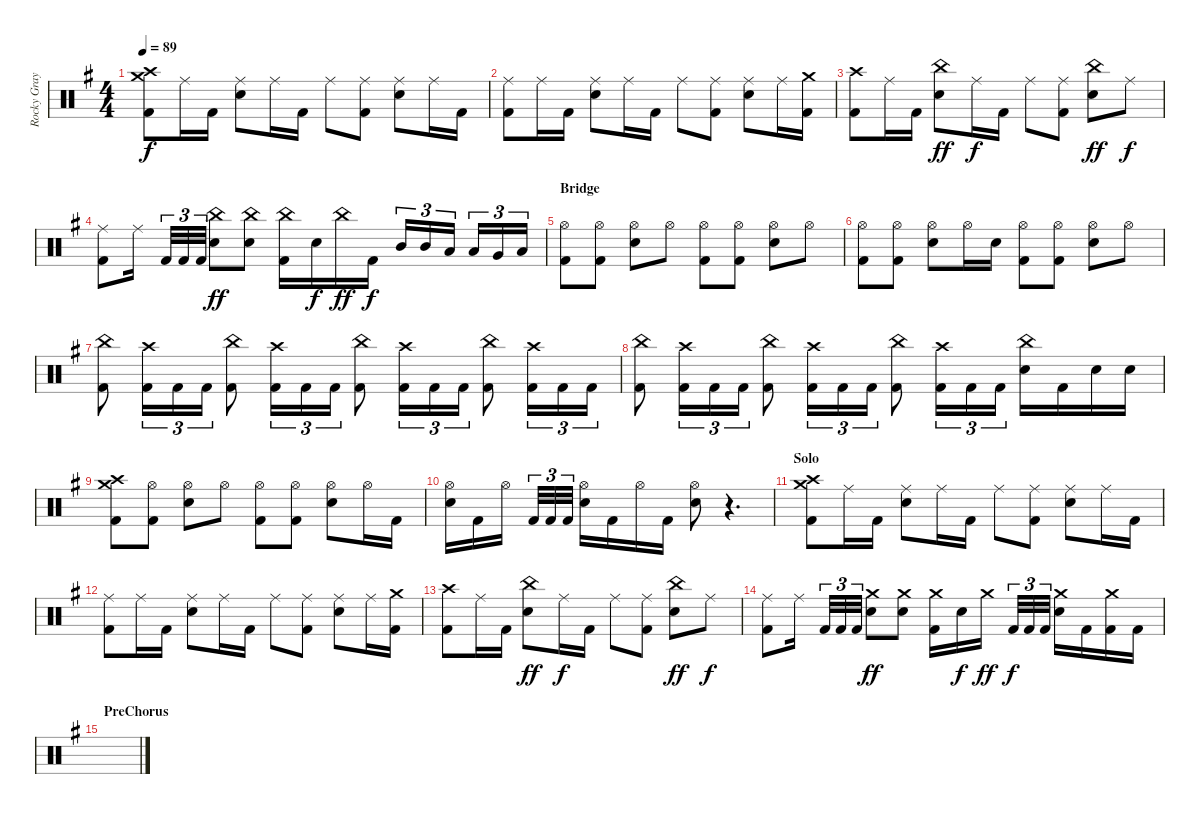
\track ("Rocky Gray" "Rocky Gray") {instrument percussion}
\staff {score}
\articulation defaults
\ts (4 4)
\tempo 89
\clef neutral
\ks g
("Crash high (hit)" "Crash medium (hit)" "Kick (hit) 2").8{dy f} "Ride (middle)".16 "Kick (hit) 2".16 ("Ride (middle)" "Snare (hit) 2").8 "Ride (middle)".16 "Kick (hit) 2".16 "Ride (middle)".8 ("Ride (middle)" "Kick (hit) 2").8 ("Ride (middle)" "Snare (hit) 2").8 "Ride (middle)".16 "Kick (hit) 2".16 |
("Ride (middle)" "Kick (hit) 2").8 "Ride (middle)".16 "Kick (hit) 2".16 ("Ride (middle)" "Snare (hit) 2").8 "Ride (middle)".16 "Kick (hit) 2".16 "Ride (middle)".8 ("Ride (middle)" "Kick (hit) 2").8 ("Ride (middle)" "Snare (hit) 2").8 "Ride (middle)".16 ("Crash medium (hit)" "Kick (hit) 2").16 |
("Crash high (hit)" "Kick (hit) 2").8 "Ride (middle)".16 "Kick (hit) 2".16 ("China (hit)" "Snare (hit) 2").8{dy ff} "Ride (middle)".16{dy f} "Kick (hit) 2".16 "Ride (middle)".8 ("Ride (middle)" "Kick (hit) 2").8 ("China (hit)" "Snare (hit) 2").8{dy ff} "Ride (middle)".8{dy f} |
("Ride (middle)" "Kick (hit) 2").8 "Ride (middle)".16 "Kick (hit) 2".32{tu (3 2)} "Kick (hit) 2".32{tu (3 2)} "Kick (hit) 2".32{tu (3 2)} ("China (hit)" "Snare (hit) 2").8{dy ff} ("China (hit)" "Snare (hit) 2").8 ("China (hit)" "Kick (hit) 2").16 "Snare (hit) 2".16{dy f} "China (hit)".16{dy ff} "Kick (hit) 2".16{dy f} "Mid Tom (hit)".16{tu (3 2)} "Mid Tom (hit)".16{tu (3 2)} "Low Tom (hit)".16{tu (3 2)} "Low Tom (hit)".16{tu (3 2)} "Very Low Tom (hit)".16{tu (3 2)} "Low Floor Tom (hit)".16{tu (3 2)} |
\section ("" "Bridge")
("Hi-Hat (open)" "Kick (hit) 2").8 ("Hi-Hat (open)" "Kick (hit) 2").8 ("Hi-Hat (open)" "Snare (hit) 2").8 "Hi-Hat (open)".8 ("Hi-Hat (open)" "Kick (hit) 2").8 ("Hi-Hat (open)" "Kick (hit) 2").8 ("Hi-Hat (open)" "Snare (hit) 2").8 "Hi-Hat (open)".8 |
("Hi-Hat (open)" "Kick (hit) 2").8 ("Hi-Hat (open)" "Kick (hit) 2").8 ("Hi-Hat (open)" "Snare (hit) 2").8 "Hi-Hat (open)".16 "Snare (hit) 2".16 ("Hi-Hat (open)" "Kick (hit) 2").8 ("Hi-Hat (open)" "Kick (hit) 2").8 ("Hi-Hat (open)" "Snare (hit) 2").8 "Hi-Hat (open)".8 |
("China (hit)" "Kick (hit) 2").8 ("Crash high (hit)" "Kick (hit) 2").16{tu (3 2)} "Kick (hit) 2".16{tu (3 2)} "Kick (hit) 2".16{tu (3 2)} ("China (hit)" "Kick (hit) 2").8 ("Crash high (hit)" "Kick (hit) 2").16{tu (3 2)} "Kick (hit) 2".16{tu (3 2)} "Kick (hit) 2".16{tu (3 2)} ("China (hit)" "Kick (hit) 2").8 ("Crash high (hit)" "Kick (hit) 2").16{tu (3 2)} "Kick (hit) 2".16{tu (3 2)} "Kick (hit) 2".16{tu (3 2)} ("China (hit)" "Kick (hit) 2").8 ("Crash high (hit)" "Kick (hit) 2").16{tu (3 2)} "Kick (hit) 2".16{tu (3 2)} "Kick (hit) 2".16{tu (3 2)} |
("China (hit)" "Kick (hit) 2").8 ("Crash high (hit)" "Kick (hit) 2").16{tu (3 2)} "Kick (hit) 2".16{tu (3 2)} "Kick (hit) 2".16{tu (3 2)} ("China (hit)" "Kick (hit) 2").8 ("Crash high (hit)" "Kick (hit) 2").16{tu (3 2)} "Kick (hit) 2".16{tu (3 2)} "Kick (hit) 2".16{tu (3 2)} ("China (hit)" "Kick (hit) 2").8 ("Crash high (hit)" "Kick (hit) 2").16{tu (3 2)} "Kick (hit) 2".16{tu (3 2)} "Kick (hit) 2".16{tu (3 2)} ("China (hit)" "Snare (hit) 2").16 "Kick (hit) 2".16 "Snare (hit) 2".16 "Snare (hit) 2".16 |
("Crash high (hit)" "Crash medium (hit)" "Kick (hit) 2").8 ("Hi-Hat (open)" "Kick (hit) 2").8 ("Hi-Hat (open)" "Snare (hit) 2").8 "Hi-Hat (open)".8 ("Hi-Hat (open)" "Kick (hit) 2").8 ("Hi-Hat (open)" "Kick (hit) 2").8 ("Hi-Hat (open)" "Snare (hit) 2").8 "Hi-Hat (open)".16 "Kick (hit) 2".16 |
("Hi-Hat (open)" "Snare (hit) 2").16 "Kick (hit) 2".16 "Hi-Hat (open)".16 "Kick (hit) 2".32{tu (3 2)} "Kick (hit) 2".32{tu (3 2)} "Kick (hit) 2".32{tu (3 2)} ("Hi-Hat (open)" "Snare (hit) 2").16 "Kick (hit) 2".16 "Hi-Hat (open)".16 "Kick (hit) 2".16 ("Hi-Hat (open)" "Snare (hit) 2").8 r.4{d} |
\section ("" "Solo")
("Crash high (hit)" "Crash medium (hit)" "Kick (hit) 2").8 "Ride (middle)".16 "Kick (hit) 2".16 ("Ride (middle)" "Snare (hit) 2").8 "Ride (middle)".16 "Kick (hit) 2".16 "Ride (middle)".8 ("Ride (middle)" "Kick (hit) 2").8 ("Ride (middle)" "Snare (hit) 2").8 "Ride (middle)".16 "Kick (hit) 2".16 |
("Ride (middle)" "Kick (hit) 2").8 "Ride (middle)".16 "Kick (hit) 2".16 ("Ride (middle)" "Snare (hit) 2").8 "Ride (middle)".16 "Kick (hit) 2".16 "Ride (middle)".8 ("Ride (middle)" "Kick (hit) 2").8 ("Ride (middle)" "Snare (hit) 2").8 "Ride (middle)".16 ("Crash medium (hit)" "Kick (hit) 2").16 |
("Crash high (hit)" "Kick (hit) 2").8 "Ride (middle)".16 "Kick (hit) 2".16 ("China (hit)" "Snare (hit) 2").8{dy ff} "Ride (middle)".16{dy f} "Kick (hit) 2".16 "Ride (middle)".8 ("Ride (middle)" "Kick (hit) 2").8 ("China (hit)" "Snare (hit) 2").8{dy ff} "Ride (middle)".8{dy f} |
("Ride (middle)" "Kick (hit) 2").8 "Ride (middle)".16 "Kick (hit) 2".32{tu (3 2)} "Kick (hit) 2".32{tu (3 2)} "Kick (hit) 2".32{tu (3 2)} ("Crash medium (hit)" "Snare (hit) 2").8{dy ff} ("Crash medium (hit)" "Snare (hit) 2").8 ("Crash medium (hit)" "Kick (hit) 2").16 "Snare (hit) 2".16{dy f} "Crash medium (hit)".16{dy ff} "Kick (hit) 2".32{tu (3 2) dy f} "Kick (hit) 2".32{tu (3 2)} "Kick (hit) 2".32{tu (3 2)} ("Crash medium (hit)" "Snare (hit) 2").16 "Kick (hit) 2".16 ("Crash medium (hit)" "Kick (hit) 2").16 "Kick (hit) 2".16 |
\section ("" "PreChorus")
